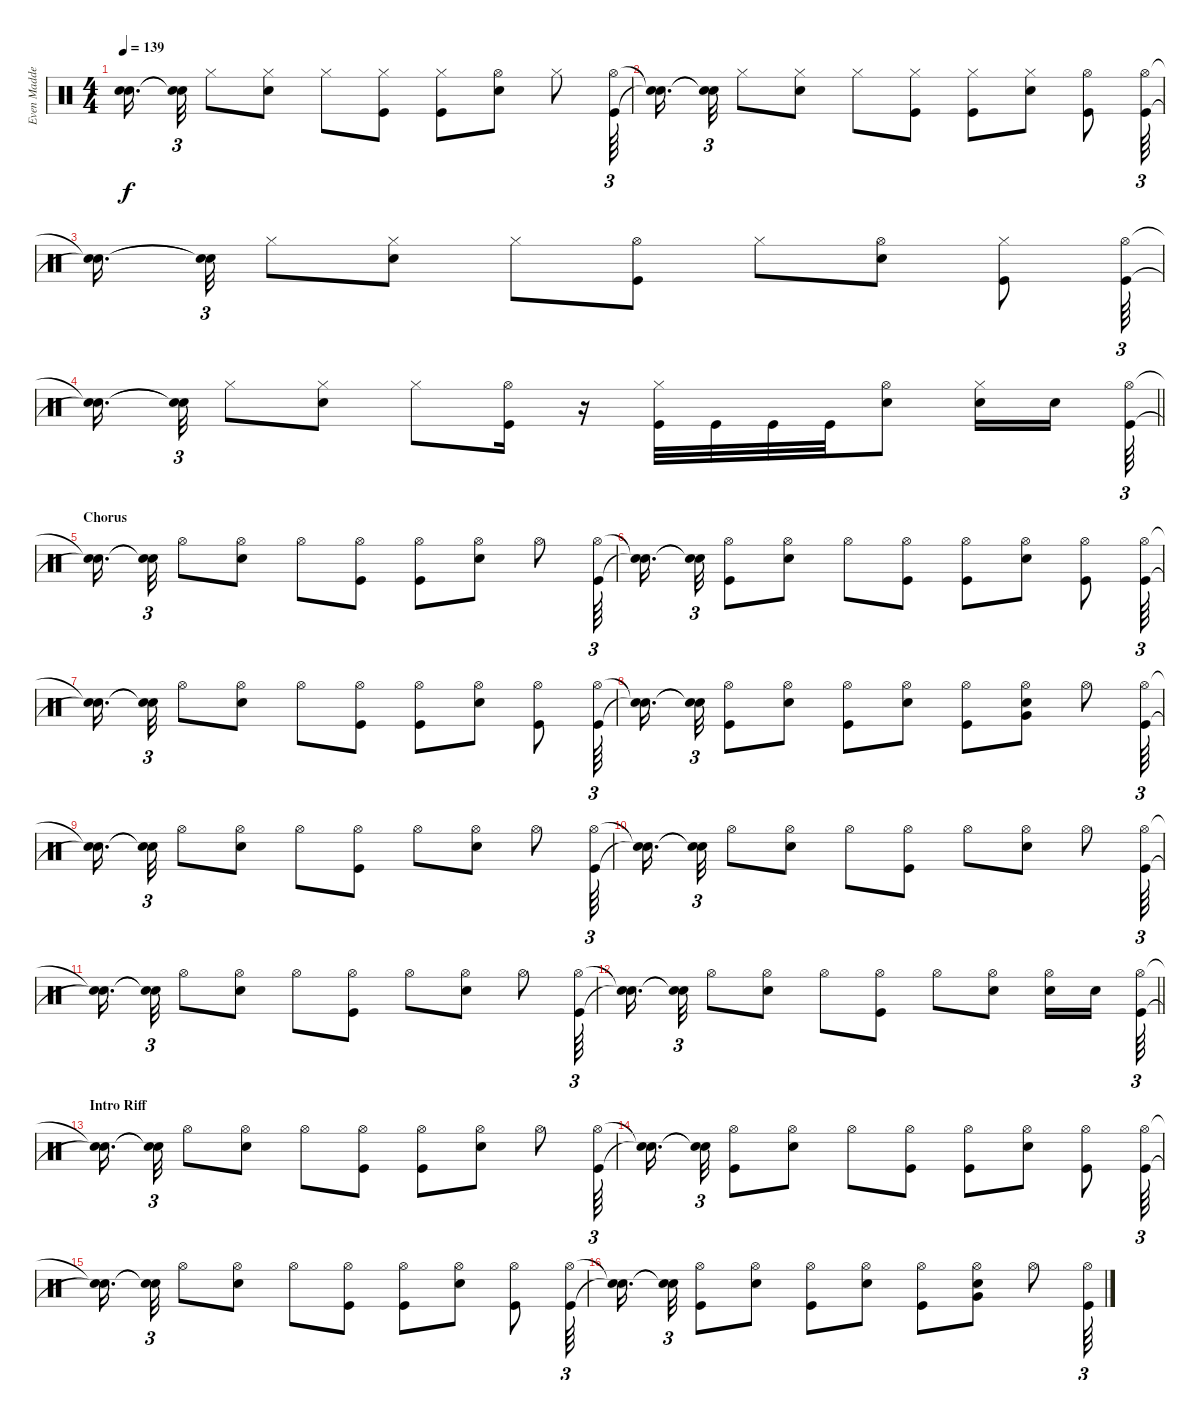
\track ("Even Madden - Drums" "Even Madde") {instrument percussion}
\staff {score}
\articulation defaults
\ts (4 4)
\tempo 139
\clef neutral
\ks c
("Snare (hit)"{t} "Snare (hit)"{t}).16{d dy f beam splitsecondary} ("Snare (hit)"{t} "Snare (hit)"{t}).32{tu (3 2)} "Hi-Hat (closed)".8 ("Hi-Hat (closed)" "Snare (hit) 2").8 "Hi-Hat (closed)".8 ("Hi-Hat (closed)" "Kick (hit)").8 ("Hi-Hat (closed)" "Kick (hit)").8 ("Hi-Hat (open)" "Snare (hit) 2").8 "Hi-Hat (closed)".8 ("Kick (hit)" "Hi-Hat (open)").64{tu (3 2)} |
("Snare (hit)"{t} "Snare (hit)"{t}).16{d beam splitsecondary} ("Snare (hit)"{t} "Snare (hit)"{t}).32{tu (3 2)} "Hi-Hat (closed)".8 ("Hi-Hat (closed)" "Snare (hit) 2").8 "Hi-Hat (closed)".8 ("Hi-Hat (closed)" "Kick (hit)").8 ("Hi-Hat (closed)" "Kick (hit)").8 ("Hi-Hat (closed)" "Snare (hit) 2").8 ("Hi-Hat (open)" "Kick (hit)").8 ("Kick (hit)" "Hi-Hat (open)").64{tu (3 2)} |
("Snare (hit)"{t} "Snare (hit)"{t}).16{d beam splitsecondary} ("Snare (hit)"{t} "Snare (hit)"{t}).32{tu (3 2)} "Hi-Hat (closed)".8 ("Hi-Hat (closed)" "Snare (hit) 2").8 "Hi-Hat (closed)".8 ("Hi-Hat (open)" "Kick (hit)").8 "Hi-Hat (closed)".8 ("Hi-Hat (open)" "Snare (hit) 2").8 ("Hi-Hat (closed)" "Kick (hit)").8 ("Kick (hit)" "Hi-Hat (open)").64{tu (3 2)} |
\barLineRight lightlight
("Snare (hit)"{t} "Snare (hit)"{t}).16{d beam splitsecondary} ("Snare (hit)"{t} "Snare (hit)"{t}).32{tu (3 2)} "Hi-Hat (closed)".8 ("Hi-Hat (closed)" "Snare (hit) 2").8 "Hi-Hat (closed)".8 ("Hi-Hat (open)" "Kick (hit)").16 r.16 ("Hi-Hat (closed)" "Kick (hit)").32 "Kick (hit)".32 "Kick (hit)".32 "Kick (hit)".32 ("Hi-Hat (open)" "Snare (hit) 2").8 ("Hi-Hat (closed)" "Snare (hit) 2").16 "Snare (hit) 2".16{beam splitsecondary} ("Kick (hit)" "Hi-Hat (open)").64{tu (3 2)} |
\section ("" "Chorus")
("Snare (hit)"{t} "Snare (hit)"{t}).16{d beam splitsecondary} ("Snare (hit)"{t} "Snare (hit)"{t}).32{tu (3 2)} "Hi-Hat (open)".8 ("Hi-Hat (open)" "Snare (hit) 2").8 "Hi-Hat (open)".8 ("Hi-Hat (open)" "Kick (hit)").8 ("Hi-Hat (open)" "Kick (hit)").8 ("Hi-Hat (open)" "Snare (hit) 2").8 "Hi-Hat (open)".8 ("Hi-Hat (open)" "Kick (hit)").64{tu (3 2)} |
("Snare (hit)"{t} "Snare (hit)"{t}).16{d beam splitsecondary} ("Snare (hit)"{t} "Snare (hit)"{t}).32{tu (3 2)} ("Hi-Hat (open)" "Kick (hit)").8 ("Hi-Hat (open)" "Snare (hit) 2").8 "Hi-Hat (open)".8 ("Hi-Hat (open)" "Kick (hit)").8 ("Hi-Hat (open)" "Kick (hit)").8 ("Hi-Hat (open)" "Snare (hit) 2").8 ("Hi-Hat (open)" "Kick (hit)").8 ("Hi-Hat (open)" "Kick (hit)").64{tu (3 2)} |
("Snare (hit)"{t} "Snare (hit)"{t}).16{d beam splitsecondary} ("Snare (hit)"{t} "Snare (hit)"{t}).32{tu (3 2)} "Hi-Hat (open)".8 ("Hi-Hat (open)" "Snare (hit) 2").8 "Hi-Hat (open)".8 ("Hi-Hat (open)" "Kick (hit)").8 ("Hi-Hat (open)" "Kick (hit)").8 ("Hi-Hat (open)" "Snare (hit) 2").8 ("Hi-Hat (open)" "Kick (hit)").8 ("Hi-Hat (open)" "Kick (hit)").64{tu (3 2)} |
("Snare (hit)"{t} "Snare (hit)"{t}).16{d beam splitsecondary} ("Snare (hit)"{t} "Snare (hit)"{t}).32{tu (3 2)} ("Hi-Hat (open)" "Kick (hit)").8 ("Hi-Hat (open)" "Snare (hit) 2").8 ("Hi-Hat (open)" "Kick (hit)").8 ("Hi-Hat (open)" "Snare (hit) 2").8 ("Hi-Hat (open)" "Kick (hit)").8 ("Hi-Hat (open)" "Snare (hit) 2" "Very Low Tom (hit)").8 "Hi-Hat (open)".8 ("Hi-Hat (open)" "Kick (hit)").64{tu (3 2)} |
("Snare (hit)"{t} "Snare (hit)"{t}).16{d beam splitsecondary} ("Snare (hit)"{t} "Snare (hit)"{t}).32{tu (3 2)} "Hi-Hat (open)".8 ("Hi-Hat (open)" "Snare (hit) 2").8 "Hi-Hat (open)".8 ("Hi-Hat (open)" "Kick (hit)").8 "Hi-Hat (open)".8 ("Hi-Hat (open)" "Snare (hit) 2").8 "Hi-Hat (open)".8 ("Hi-Hat (open)" "Kick (hit)").64{tu (3 2)} |
("Snare (hit)"{t} "Snare (hit)"{t}).16{d beam splitsecondary} ("Snare (hit)"{t} "Snare (hit)"{t}).32{tu (3 2)} "Hi-Hat (open)".8 ("Hi-Hat (open)" "Snare (hit) 2").8 "Hi-Hat (open)".8 ("Hi-Hat (open)" "Kick (hit)").8 "Hi-Hat (open)".8 ("Hi-Hat (open)" "Snare (hit) 2").8 "Hi-Hat (open)".8 ("Hi-Hat (open)" "Kick (hit)").64{tu (3 2)} |
("Snare (hit)"{t} "Snare (hit)"{t}).16{d beam splitsecondary} ("Snare (hit)"{t} "Snare (hit)"{t}).32{tu (3 2)} "Hi-Hat (open)".8 ("Hi-Hat (open)" "Snare (hit) 2").8 "Hi-Hat (open)".8 ("Hi-Hat (open)" "Kick (hit)").8 "Hi-Hat (open)".8 ("Hi-Hat (open)" "Snare (hit) 2").8 "Hi-Hat (open)".8 ("Hi-Hat (open)" "Kick (hit)").64{tu (3 2)} |
\barLineRight lightlight
("Snare (hit)"{t} "Snare (hit)"{t}).16{d beam splitsecondary} ("Snare (hit)"{t} "Snare (hit)"{t}).32{tu (3 2)} "Hi-Hat (open)".8 ("Hi-Hat (open)" "Snare (hit) 2").8 "Hi-Hat (open)".8 ("Hi-Hat (open)" "Kick (hit)").8 "Hi-Hat (open)".8 ("Hi-Hat (open)" "Snare (hit) 2").8 ("Hi-Hat (open)" "Snare (hit) 2").16 "Snare (hit) 2".16{beam splitsecondary} ("Hi-Hat (open)" "Kick (hit)").64{tu (3 2)} |
\section ("" "Intro Riff")
("Snare (hit)"{t} "Snare (hit)"{t}).16{d beam splitsecondary} ("Snare (hit)"{t} "Snare (hit)"{t}).32{tu (3 2)} "Hi-Hat (open)".8 ("Hi-Hat (open)" "Snare (hit) 2").8 "Hi-Hat (open)".8 ("Hi-Hat (open)" "Kick (hit)").8 ("Hi-Hat (open)" "Kick (hit)").8 ("Hi-Hat (open)" "Snare (hit) 2").8 "Hi-Hat (open)".8 ("Hi-Hat (open)" "Kick (hit)").64{tu (3 2)} |
("Snare (hit)"{t} "Snare (hit)"{t}).16{d beam splitsecondary} ("Snare (hit)"{t} "Snare (hit)"{t}).32{tu (3 2)} ("Hi-Hat (open)" "Kick (hit)").8 ("Hi-Hat (open)" "Snare (hit) 2").8 "Hi-Hat (open)".8 ("Hi-Hat (open)" "Kick (hit)").8 ("Hi-Hat (open)" "Kick (hit)").8 ("Hi-Hat (open)" "Snare (hit) 2").8 ("Hi-Hat (open)" "Kick (hit)").8 ("Hi-Hat (open)" "Kick (hit)").64{tu (3 2)} |
("Snare (hit)"{t} "Snare (hit)"{t}).16{d beam splitsecondary} ("Snare (hit)"{t} "Snare (hit)"{t}).32{tu (3 2)} "Hi-Hat (open)".8 ("Hi-Hat (open)" "Snare (hit) 2").8 "Hi-Hat (open)".8 ("Hi-Hat (open)" "Kick (hit)").8 ("Hi-Hat (open)" "Kick (hit)").8 ("Hi-Hat (open)" "Snare (hit) 2").8 ("Hi-Hat (open)" "Kick (hit)").8 ("Hi-Hat (open)" "Kick (hit)").64{tu (3 2)} |
("Snare (hit)"{t} "Snare (hit)"{t}).16{d beam splitsecondary} ("Snare (hit)"{t} "Snare (hit)"{t}).32{tu (3 2)} ("Hi-Hat (open)" "Kick (hit)").8 ("Hi-Hat (open)" "Snare (hit) 2").8 ("Hi-Hat (open)" "Kick (hit)").8 ("Hi-Hat (open)" "Snare (hit) 2").8 ("Hi-Hat (open)" "Kick (hit)").8 ("Hi-Hat (open)" "Snare (hit) 2" "Very Low Tom (hit)").8 "Hi-Hat (open)".8 ("Hi-Hat (open)" "Kick (hit)").64{tu (3 2)}
